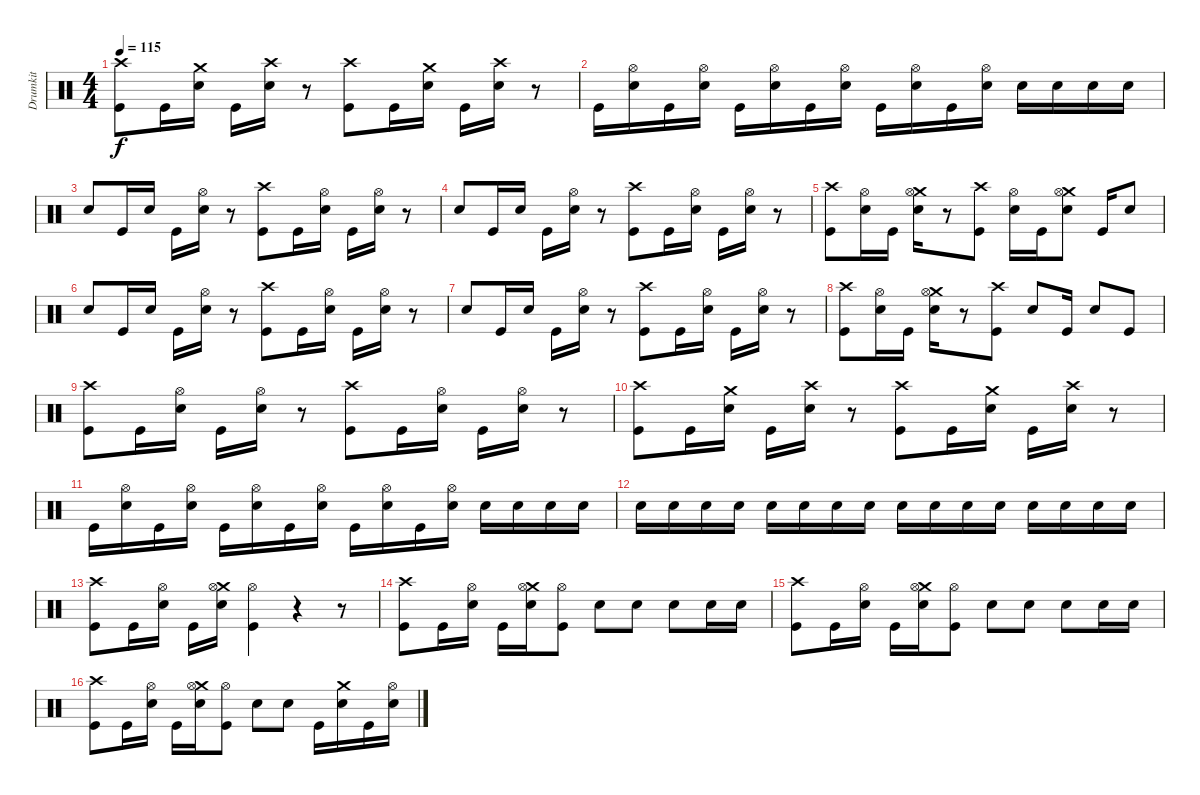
\track ("Drumkit" "Drumkit") {instrument percussion}
\staff {score}
\articulation defaults
\ts (4 4)
\tempo 115
\clef neutral
\ks c
("Kick (hit)" "Crash high (hit)").8{dy f} "Kick (hit)".16 ("Crash medium (hit)" "Snare (hit) 2").16 "Kick (hit)".16 ("Crash high (hit)" "Snare (hit) 2").16 r.8 ("Kick (hit)" "Crash high (hit)").8 "Kick (hit)".16 ("Crash medium (hit)" "Snare (hit) 2").16 "Kick (hit)".16 ("Crash high (hit)" "Snare (hit) 2").16 r.8 |
"Kick (hit)".16 ("Hi-Hat (open)" "Snare (hit) 2").16 "Kick (hit)".16 ("Hi-Hat (open)" "Snare (hit) 2").16 "Kick (hit)".16 ("Hi-Hat (open)" "Snare (hit) 2").16 "Kick (hit)".16 ("Hi-Hat (open)" "Snare (hit) 2").16 "Kick (hit)".16 ("Hi-Hat (open)" "Snare (hit) 2").16 "Kick (hit)".16 ("Hi-Hat (open)" "Snare (hit) 2").16 "Snare (hit) 2".16 "Snare (hit) 2".16 "Snare (hit) 2".16 "Snare (hit) 2".16 |
"Snare (hit) 2".8 "Kick (hit)".16 "Snare (hit) 2".16 "Kick (hit)".16 ("Hi-Hat (open)" "Snare (hit) 2").16 r.8 ("Kick (hit)" "Crash high (hit)").8 "Kick (hit)".16 ("Hi-Hat (open)" "Snare (hit) 2").16 "Kick (hit)".16 ("Hi-Hat (open)" "Snare (hit) 2").16 r.8 |
"Snare (hit) 2".8 "Kick (hit)".16 "Snare (hit) 2".16 "Kick (hit)".16 ("Hi-Hat (open)" "Snare (hit) 2").16 r.8 ("Kick (hit)" "Crash high (hit)").8 "Kick (hit)".16 ("Hi-Hat (open)" "Snare (hit) 2").16 "Kick (hit)".16 ("Hi-Hat (open)" "Snare (hit) 2").16 r.8 |
("Crash high (hit)" "Kick (hit)").8 ("Hi-Hat (open)" "Snare (hit) 2").16 "Kick (hit)".16 ("Crash medium (hit)" "Hi-Hat (open)" "Snare (hit) 2").16 r.8 ("Crash high (hit)" "Kick (hit)").8 ("Hi-Hat (open)" "Snare (hit) 2").16 "Kick (hit)".16 ("Crash medium (hit)" "Hi-Hat (open)" "Snare (hit) 2").8 "Kick (hit)".16 "Snare (hit) 2".8 |
"Snare (hit) 2".8 "Kick (hit)".16 "Snare (hit) 2".16 "Kick (hit)".16 ("Hi-Hat (open)" "Snare (hit) 2").16 r.8 ("Kick (hit)" "Crash high (hit)").8 "Kick (hit)".16 ("Hi-Hat (open)" "Snare (hit) 2").16 "Kick (hit)".16 ("Hi-Hat (open)" "Snare (hit) 2").16 r.8 |
"Snare (hit) 2".8 "Kick (hit)".16 "Snare (hit) 2".16 "Kick (hit)".16 ("Hi-Hat (open)" "Snare (hit) 2").16 r.8 ("Kick (hit)" "Crash high (hit)").8 "Kick (hit)".16 ("Hi-Hat (open)" "Snare (hit) 2").16 "Kick (hit)".16 ("Hi-Hat (open)" "Snare (hit) 2").16 r.8 |
("Crash high (hit)" "Kick (hit)").8 ("Hi-Hat (open)" "Snare (hit) 2").16 "Kick (hit)".16 ("Crash medium (hit)" "Hi-Hat (open)" "Snare (hit) 2").16 r.8 ("Crash high (hit)" "Kick (hit)").8 "Snare (hit) 2".8 "Kick (hit)".16 "Snare (hit) 2".8 "Kick (hit)".8 |
("Kick (hit)" "Crash high (hit)").8 "Kick (hit)".16 ("Hi-Hat (open)" "Snare (hit) 2").16 "Kick (hit)".16 ("Hi-Hat (open)" "Snare (hit) 2").16 r.8 ("Kick (hit)" "Crash high (hit)").8 "Kick (hit)".16 ("Hi-Hat (open)" "Snare (hit) 2").16 "Kick (hit)".16 ("Hi-Hat (open)" "Snare (hit) 2").16 r.8 |
("Kick (hit)" "Crash high (hit)").8 "Kick (hit)".16 ("Crash medium (hit)" "Snare (hit) 2").16 "Kick (hit)".16 ("Crash high (hit)" "Snare (hit) 2").16 r.8 ("Kick (hit)" "Crash high (hit)").8 "Kick (hit)".16 ("Crash medium (hit)" "Snare (hit) 2").16 "Kick (hit)".16 ("Crash high (hit)" "Snare (hit) 2").16 r.8 |
"Kick (hit)".16 ("Hi-Hat (open)" "Snare (hit) 2").16 "Kick (hit)".16 ("Hi-Hat (open)" "Snare (hit) 2").16 "Kick (hit)".16 ("Hi-Hat (open)" "Snare (hit) 2").16 "Kick (hit)".16 ("Hi-Hat (open)" "Snare (hit) 2").16 "Kick (hit)".16 ("Hi-Hat (open)" "Snare (hit) 2").16 "Kick (hit)".16 ("Hi-Hat (open)" "Snare (hit) 2").16 "Snare (hit) 2".16 "Snare (hit) 2".16 "Snare (hit) 2".16 "Snare (hit) 2".16 |
"Snare (hit) 2".16 "Snare (hit) 2".16 "Snare (hit) 2".16 "Snare (hit) 2".16 "Snare (hit) 2".16 "Snare (hit) 2".16 "Snare (hit) 2".16 "Snare (hit) 2".16 "Snare (hit) 2".16 "Snare (hit) 2".16 "Snare (hit) 2".16 "Snare (hit) 2".16 "Snare (hit) 2".16 "Snare (hit) 2".16 "Snare (hit) 2".16 "Snare (hit) 2".16 |
("Kick (hit)" "Crash high (hit)").8 "Kick (hit)".16 ("Hi-Hat (open)" "Snare (hit) 2").16 "Kick (hit)".16 ("Crash medium (hit)" "Hi-Hat (open)" "Snare (hit) 2").16 ("Kick (hit)" "Hi-Hat (open)").4 r.4 r.8 |
("Kick (hit)" "Crash high (hit)").8 "Kick (hit)".16 ("Hi-Hat (open)" "Snare (hit) 2").16 "Kick (hit)".16 ("Crash medium (hit)" "Hi-Hat (open)" "Snare (hit) 2").16 ("Kick (hit)" "Hi-Hat (open)").8 "Snare (hit) 2".8 "Snare (hit) 2".8 "Snare (hit) 2".8 "Snare (hit) 2".16 "Snare (hit) 2".16 |
("Kick (hit)" "Crash high (hit)").8 "Kick (hit)".16 ("Hi-Hat (open)" "Snare (hit) 2").16 "Kick (hit)".16 ("Crash medium (hit)" "Hi-Hat (open)" "Snare (hit) 2").16 ("Kick (hit)" "Hi-Hat (open)").8 "Snare (hit) 2".8 "Snare (hit) 2".8 "Snare (hit) 2".8 "Snare (hit) 2".16 "Snare (hit) 2".16 |
("Kick (hit)" "Crash high (hit)").8 "Kick (hit)".16 ("Hi-Hat (open)" "Snare (hit) 2").16 "Kick (hit)".16 ("Crash medium (hit)" "Hi-Hat (open)" "Snare (hit) 2").16 ("Kick (hit)" "Hi-Hat (open)").8 "Snare (hit) 2".8 "Snare (hit) 2".8 "Kick (hit)".16 ("Crash medium (hit)" "Snare (hit) 2").16 "Kick (hit)".16 ("Hi-Hat (open)" "Snare (hit) 2").16
